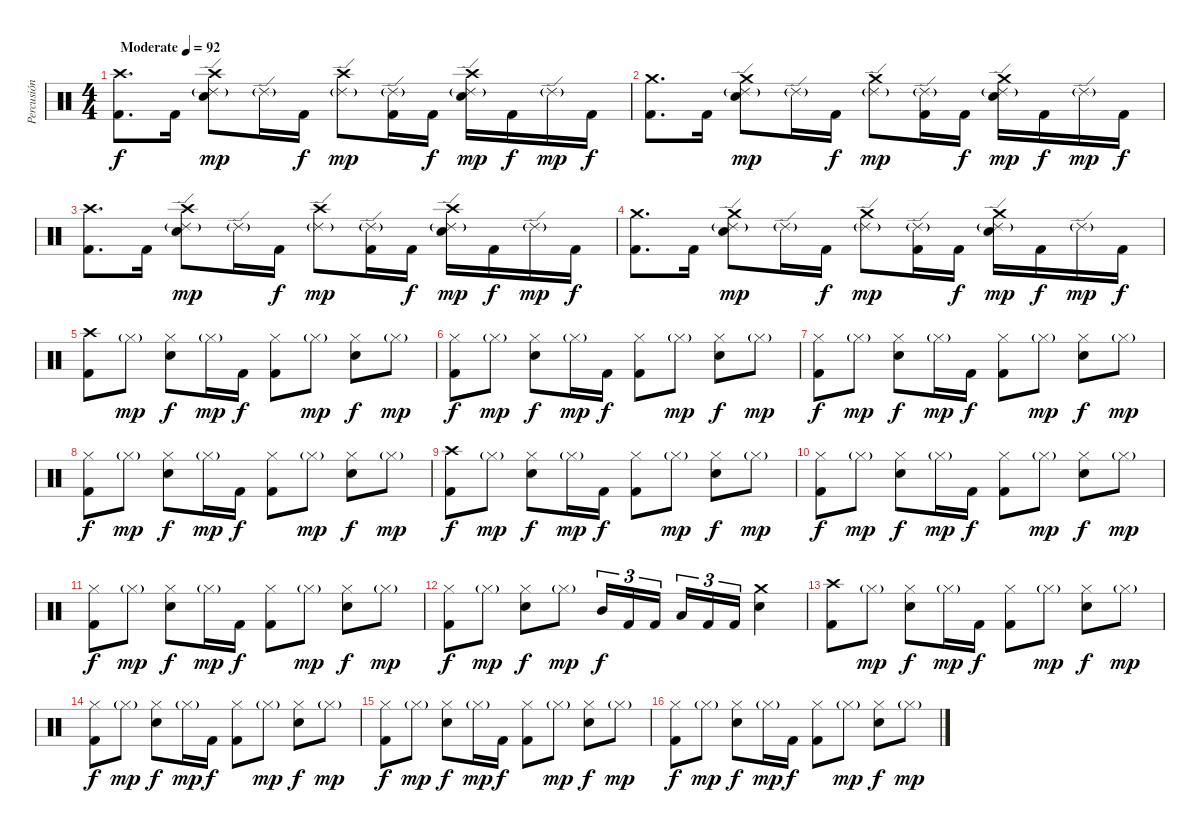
\track ("Percusión" "Percusión") {instrument percussion}
\staff {score}
\articulation defaults
\ts (4 4)
\tempo (92 "Moderate")
\clef neutral
\ks c
("Crash high (hit)" "Kick (hit) 2").8{d dy f} "Kick (hit) 2".16 ("Crash high (hit)" "Ride (edge) 2"{g} "Snare (hit) 2").8{dy mp} "Ride (edge) 2"{g}.16 "Kick (hit) 2".16{dy f} ("Crash high (hit)" "Ride (edge) 2"{g}).8{dy mp} ("Ride (edge) 2"{g} "Kick (hit) 2").16 "Kick (hit) 2".16{dy f} ("Crash high (hit)" "Ride (edge) 2"{g} "Snare (hit) 2").16{dy mp} "Kick (hit) 2".16{dy f} "Ride (edge) 2"{g}.16{dy mp} "Kick (hit) 2".16{dy f} |
("Crash medium (hit)" "Kick (hit) 2").8{d} "Kick (hit) 2".16 ("Crash medium (hit)" "Ride (edge) 2"{g} "Snare (hit) 2").8{dy mp} "Ride (edge) 2"{g}.16 "Kick (hit) 2".16{dy f} ("Crash medium (hit)" "Ride (edge) 2"{g}).8{dy mp} ("Ride (edge) 2"{g} "Kick (hit) 2").16 "Kick (hit) 2".16{dy f} ("Crash medium (hit)" "Ride (edge) 2"{g} "Snare (hit) 2").16{dy mp} "Kick (hit) 2".16{dy f} "Ride (edge) 2"{g}.16{dy mp} "Kick (hit) 2".16{dy f} |
("Crash high (hit)" "Kick (hit) 2").8{d} "Kick (hit) 2".16 ("Crash high (hit)" "Ride (edge) 2"{g} "Snare (hit) 2").8{dy mp} "Ride (edge) 2"{g}.16 "Kick (hit) 2".16{dy f} ("Crash high (hit)" "Ride (edge) 2"{g}).8{dy mp} ("Ride (edge) 2"{g} "Kick (hit) 2").16 "Kick (hit) 2".16{dy f} ("Crash high (hit)" "Ride (edge) 2"{g} "Snare (hit) 2").16{dy mp} "Kick (hit) 2".16{dy f} "Ride (edge) 2"{g}.16{dy mp} "Kick (hit) 2".16{dy f} |
("Crash medium (hit)" "Kick (hit) 2").8{d} "Kick (hit) 2".16 ("Crash medium (hit)" "Ride (edge) 2"{g} "Snare (hit) 2").8{dy mp} "Ride (edge) 2"{g}.16 "Kick (hit) 2".16{dy f} ("Crash medium (hit)" "Ride (edge) 2"{g}).8{dy mp} ("Ride (edge) 2"{g} "Kick (hit) 2").16 "Kick (hit) 2".16{dy f} ("Crash medium (hit)" "Ride (edge) 2"{g} "Snare (hit) 2").16{dy mp} "Kick (hit) 2".16{dy f} "Ride (edge) 2"{g}.16{dy mp} "Kick (hit) 2".16{dy f} |
("Crash high (hit)" "Kick (hit) 2").8 "Hi-Hat (closed)"{g}.8{dy mp} ("Hi-Hat (closed)" "Snare (hit) 2").8{dy f} "Hi-Hat (closed)"{g}.16{dy mp} "Kick (hit) 2".16{dy f} ("Hi-Hat (closed)" "Kick (hit) 2").8 "Hi-Hat (closed)"{g}.8{dy mp} ("Hi-Hat (closed)" "Snare (hit) 2").8{dy f} "Hi-Hat (closed)"{g}.8{dy mp} |
("Hi-Hat (closed)" "Kick (hit) 2").8{dy f} "Hi-Hat (closed)"{g}.8{dy mp} ("Hi-Hat (closed)" "Snare (hit) 2").8{dy f} "Hi-Hat (closed)"{g}.16{dy mp} "Kick (hit) 2".16{dy f} ("Hi-Hat (closed)" "Kick (hit) 2").8 "Hi-Hat (closed)"{g}.8{dy mp} ("Hi-Hat (closed)" "Snare (hit) 2").8{dy f} "Hi-Hat (closed)"{g}.8{dy mp} |
("Hi-Hat (closed)" "Kick (hit) 2").8{dy f} "Hi-Hat (closed)"{g}.8{dy mp} ("Hi-Hat (closed)" "Snare (hit) 2").8{dy f} "Hi-Hat (closed)"{g}.16{dy mp} "Kick (hit) 2".16{dy f} ("Hi-Hat (closed)" "Kick (hit) 2").8 "Hi-Hat (closed)"{g}.8{dy mp} ("Hi-Hat (closed)" "Snare (hit) 2").8{dy f} "Hi-Hat (closed)"{g}.8{dy mp} |
("Hi-Hat (closed)" "Kick (hit) 2").8{dy f} "Hi-Hat (closed)"{g}.8{dy mp} ("Hi-Hat (closed)" "Snare (hit) 2").8{dy f} "Hi-Hat (closed)"{g}.16{dy mp} "Kick (hit) 2".16{dy f} ("Hi-Hat (closed)" "Kick (hit) 2").8 "Hi-Hat (closed)"{g}.8{dy mp} ("Hi-Hat (closed)" "Snare (hit) 2").8{dy f} "Hi-Hat (closed)"{g}.8{dy mp} |
("Crash high (hit)" "Kick (hit) 2").8{dy f} "Hi-Hat (closed)"{g}.8{dy mp} ("Hi-Hat (closed)" "Snare (hit) 2").8{dy f} "Hi-Hat (closed)"{g}.16{dy mp} "Kick (hit) 2".16{dy f} ("Hi-Hat (closed)" "Kick (hit) 2").8 "Hi-Hat (closed)"{g}.8{dy mp} ("Hi-Hat (closed)" "Snare (hit) 2").8{dy f} "Hi-Hat (closed)"{g}.8{dy mp} |
("Hi-Hat (closed)" "Kick (hit) 2").8{dy f} "Hi-Hat (closed)"{g}.8{dy mp} ("Hi-Hat (closed)" "Snare (hit) 2").8{dy f} "Hi-Hat (closed)"{g}.16{dy mp} "Kick (hit) 2".16{dy f} ("Hi-Hat (closed)" "Kick (hit) 2").8 "Hi-Hat (closed)"{g}.8{dy mp} ("Hi-Hat (closed)" "Snare (hit) 2").8{dy f} "Hi-Hat (closed)"{g}.8{dy mp} |
("Hi-Hat (closed)" "Kick (hit) 2").8{dy f} "Hi-Hat (closed)"{g}.8{dy mp} ("Hi-Hat (closed)" "Snare (hit) 2").8{dy f} "Hi-Hat (closed)"{g}.16{dy mp} "Kick (hit) 2".16{dy f} ("Hi-Hat (closed)" "Kick (hit) 2").8 "Hi-Hat (closed)"{g}.8{dy mp} ("Hi-Hat (closed)" "Snare (hit) 2").8{dy f} "Hi-Hat (closed)"{g}.8{dy mp} |
("Hi-Hat (closed)" "Kick (hit) 2").8{dy f} "Hi-Hat (closed)"{g}.8{dy mp} ("Hi-Hat (closed)" "Snare (hit) 2").8{dy f} "Hi-Hat (closed)"{g}.8{dy mp} "Mid Tom (hit)".16{tu (3 2) dy f} "Kick (hit) 2".16{tu (3 2)} "Kick (hit) 2".16{tu (3 2) beam splitsecondary} "Low Tom (hit)".16{tu (3 2)} "Kick (hit) 2".16{tu (3 2)} "Kick (hit) 2".16{tu (3 2)} ("Crash medium (hit)" "Snare (hit) 2").4 |
("Crash high (hit)" "Kick (hit) 2").8 "Hi-Hat (closed)"{g}.8{dy mp} ("Hi-Hat (closed)" "Snare (hit) 2").8{dy f} "Hi-Hat (closed)"{g}.16{dy mp} "Kick (hit) 2".16{dy f} ("Hi-Hat (closed)" "Kick (hit) 2").8 "Hi-Hat (closed)"{g}.8{dy mp} ("Hi-Hat (closed)" "Snare (hit) 2").8{dy f} "Hi-Hat (closed)"{g}.8{dy mp} |
("Hi-Hat (closed)" "Kick (hit) 2").8{dy f} "Hi-Hat (closed)"{g}.8{dy mp} ("Hi-Hat (closed)" "Snare (hit) 2").8{dy f} "Hi-Hat (closed)"{g}.16{dy mp} "Kick (hit) 2".16{dy f} ("Hi-Hat (closed)" "Kick (hit) 2").8 "Hi-Hat (closed)"{g}.8{dy mp} ("Hi-Hat (closed)" "Snare (hit) 2").8{dy f} "Hi-Hat (closed)"{g}.8{dy mp} |
("Hi-Hat (closed)" "Kick (hit) 2").8{dy f} "Hi-Hat (closed)"{g}.8{dy mp} ("Hi-Hat (closed)" "Snare (hit) 2").8{dy f} "Hi-Hat (closed)"{g}.16{dy mp} "Kick (hit) 2".16{dy f} ("Hi-Hat (closed)" "Kick (hit) 2").8 "Hi-Hat (closed)"{g}.8{dy mp} ("Hi-Hat (closed)" "Snare (hit) 2").8{dy f} "Hi-Hat (closed)"{g}.8{dy mp} |
("Hi-Hat (closed)" "Kick (hit) 2").8{dy f} "Hi-Hat (closed)"{g}.8{dy mp} ("Hi-Hat (closed)" "Snare (hit) 2").8{dy f} "Hi-Hat (closed)"{g}.16{dy mp} "Kick (hit) 2".16{dy f} ("Hi-Hat (closed)" "Kick (hit) 2").8 "Hi-Hat (closed)"{g}.8{dy mp} ("Hi-Hat (closed)" "Snare (hit) 2").8{dy f} "Hi-Hat (closed)"{g}.8{dy mp}
